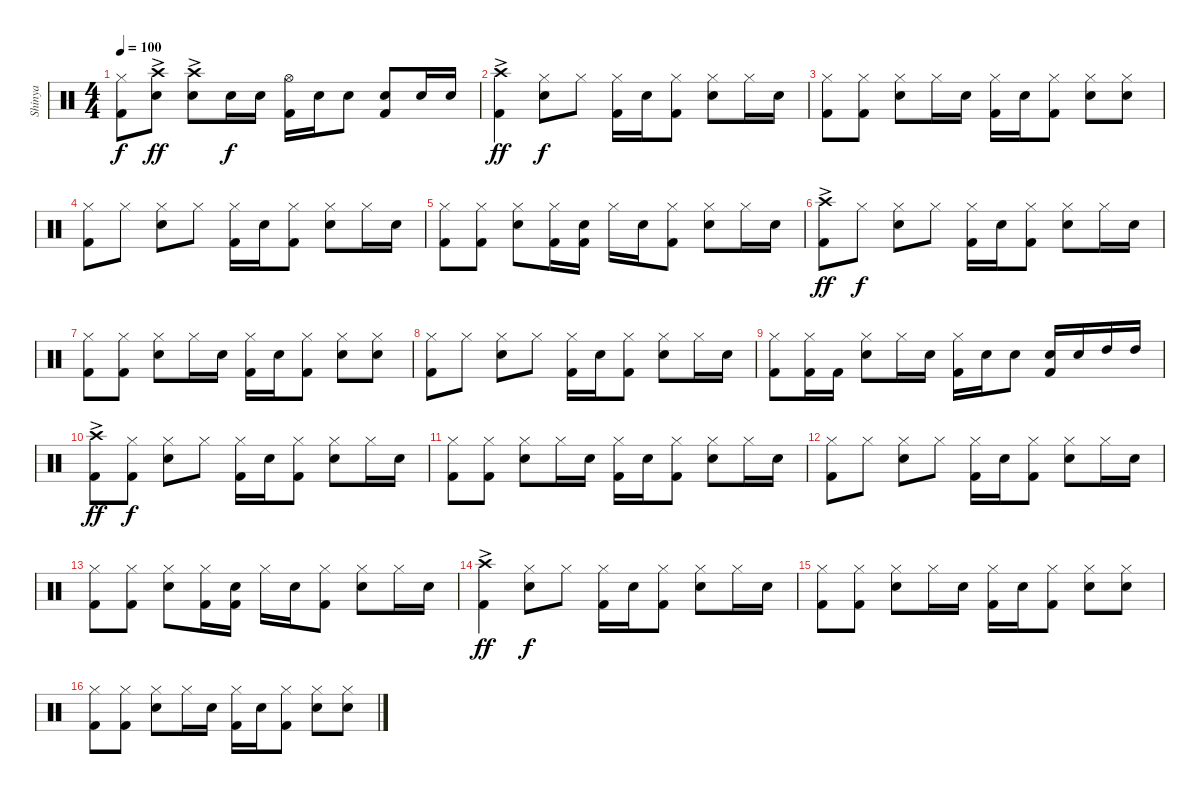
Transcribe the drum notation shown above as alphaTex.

\track ("Shinya" "Shinya") {instrument percussion}
\staff {score}
\articulation defaults
\ts (4 4)
\tempo 100
\clef neutral
\ks c
("Hi-Hat (closed)" "Kick (hit) 2").8{dy f} ("Crash high (hit)"{ac} "Snare (hit) 2").8{dy ff} ("Crash high (hit)"{ac} "Snare (hit) 2").8 "Snare (hit) 2".16{dy f} "Snare (hit) 2".16 ("Hi-Hat (open)" "Kick (hit) 2").16 "Snare (hit) 2".16 "Snare (hit) 2".8 ("Snare (hit) 2" "Kick (hit) 2").8 "Snare (hit) 2".16 "Snare (hit) 2".16 |
("Crash high (hit)"{ac} "Kick (hit) 2").4{dy ff} ("Hi-Hat (closed)" "Snare (hit) 2").8{dy f} "Hi-Hat (closed)".8 ("Hi-Hat (closed)" "Kick (hit) 2").16 "Snare (hit) 2".16 ("Hi-Hat (closed)" "Kick (hit) 2").8 ("Hi-Hat (closed)" "Snare (hit) 2").8 "Hi-Hat (closed)".16 "Snare (hit) 2".16 |
("Hi-Hat (closed)" "Kick (hit) 2").8 ("Hi-Hat (closed)" "Kick (hit) 2").8 ("Hi-Hat (closed)" "Snare (hit) 2").8 "Hi-Hat (closed)".16 "Snare (hit) 2".16 ("Hi-Hat (closed)" "Kick (hit) 2").16 "Snare (hit) 2".16 ("Hi-Hat (closed)" "Kick (hit) 2").8 ("Hi-Hat (closed)" "Snare (hit) 2").8 ("Hi-Hat (closed)" "Snare (hit) 2").8 |
("Hi-Hat (closed)" "Kick (hit) 2").8 "Hi-Hat (closed)".8 ("Hi-Hat (closed)" "Snare (hit) 2").8 "Hi-Hat (closed)".8 ("Hi-Hat (closed)" "Kick (hit) 2").16 "Snare (hit) 2".16 ("Hi-Hat (closed)" "Kick (hit) 2").8 ("Hi-Hat (closed)" "Snare (hit) 2").8 "Hi-Hat (closed)".16 "Snare (hit) 2".16 |
("Hi-Hat (closed)" "Kick (hit) 2").8 ("Hi-Hat (closed)" "Kick (hit) 2").8 ("Hi-Hat (closed)" "Snare (hit) 2").8 ("Hi-Hat (closed)" "Kick (hit) 2").16 ("Snare (hit) 2" "Kick (hit) 2").16 "Hi-Hat (closed)".16 "Snare (hit) 2".16 ("Hi-Hat (closed)" "Kick (hit) 2").8 ("Hi-Hat (closed)" "Snare (hit) 2").8 "Hi-Hat (closed)".16 "Snare (hit) 2".16 |
("Crash high (hit)"{ac} "Kick (hit) 2").8{dy ff} "Hi-Hat (closed)".8{dy f} ("Hi-Hat (closed)" "Snare (hit) 2").8 "Hi-Hat (closed)".8 ("Hi-Hat (closed)" "Kick (hit) 2").16 "Snare (hit) 2".16 ("Hi-Hat (closed)" "Kick (hit) 2").8 ("Hi-Hat (closed)" "Snare (hit) 2").8 "Hi-Hat (closed)".16 "Snare (hit) 2".16 |
("Hi-Hat (closed)" "Kick (hit) 2").8 ("Hi-Hat (closed)" "Kick (hit) 2").8 ("Hi-Hat (closed)" "Snare (hit) 2").8 "Hi-Hat (closed)".16 "Snare (hit) 2".16 ("Hi-Hat (closed)" "Kick (hit) 2").16 "Snare (hit) 2".16 ("Hi-Hat (closed)" "Kick (hit) 2").8 ("Hi-Hat (closed)" "Snare (hit) 2").8 ("Hi-Hat (closed)" "Snare (hit) 2").8 |
("Hi-Hat (closed)" "Kick (hit) 2").8 "Hi-Hat (closed)".8 ("Hi-Hat (closed)" "Snare (hit) 2").8 "Hi-Hat (closed)".8 ("Hi-Hat (closed)" "Kick (hit) 2").16 "Snare (hit) 2".16 ("Hi-Hat (closed)" "Kick (hit) 2").8 ("Hi-Hat (closed)" "Snare (hit) 2").8 "Hi-Hat (closed)".16 "Snare (hit) 2".16 |
("Hi-Hat (closed)" "Kick (hit) 2").8 ("Hi-Hat (closed)" "Kick (hit) 2").16 "Kick (hit) 2".16 ("Hi-Hat (closed)" "Snare (hit) 2").8 "Hi-Hat (closed)".16 "Snare (hit) 2".16 ("Hi-Hat (closed)" "Kick (hit) 2").16 "Snare (hit) 2".16 "Snare (hit) 2".8 ("Snare (hit) 2" "Kick (hit) 2").16 "Snare (hit) 2".16 "High Tom (hit)".16 "High Tom (hit)".16 |
("Crash high (hit)"{ac} "Kick (hit) 2").8{dy ff} ("Hi-Hat (closed)" "Kick (hit) 2").8{dy f} ("Hi-Hat (closed)" "Snare (hit) 2").8 "Hi-Hat (closed)".8 ("Hi-Hat (closed)" "Kick (hit) 2").16 "Snare (hit) 2".16 ("Hi-Hat (closed)" "Kick (hit) 2").8 ("Hi-Hat (closed)" "Snare (hit) 2").8 "Hi-Hat (closed)".16 "Snare (hit) 2".16 |
("Hi-Hat (closed)" "Kick (hit) 2").8 ("Hi-Hat (closed)" "Kick (hit) 2").8 ("Hi-Hat (closed)" "Snare (hit) 2").8 "Hi-Hat (closed)".16 "Snare (hit) 2".16 ("Hi-Hat (closed)" "Kick (hit) 2").16 "Snare (hit) 2".16 ("Hi-Hat (closed)" "Kick (hit) 2").8 ("Hi-Hat (closed)" "Snare (hit) 2").8 "Hi-Hat (closed)".16 "Snare (hit) 2".16 |
("Hi-Hat (closed)" "Kick (hit) 2").8 "Hi-Hat (closed)".8 ("Hi-Hat (closed)" "Snare (hit) 2").8 "Hi-Hat (closed)".8 ("Hi-Hat (closed)" "Kick (hit) 2").16 "Snare (hit) 2".16 ("Hi-Hat (closed)" "Kick (hit) 2").8 ("Hi-Hat (closed)" "Snare (hit) 2").8 "Hi-Hat (closed)".16 "Snare (hit) 2".16 |
("Hi-Hat (closed)" "Kick (hit) 2").8 ("Hi-Hat (closed)" "Kick (hit) 2").8 ("Hi-Hat (closed)" "Snare (hit) 2").8 ("Hi-Hat (closed)" "Kick (hit) 2").16 ("Snare (hit) 2" "Kick (hit) 2").16 "Hi-Hat (closed)".16 "Snare (hit) 2".16 ("Hi-Hat (closed)" "Kick (hit) 2").8 ("Hi-Hat (closed)" "Snare (hit) 2").8 "Hi-Hat (closed)".16 "Snare (hit) 2".16 |
("Crash high (hit)"{ac} "Kick (hit) 2").4{dy ff} ("Hi-Hat (closed)" "Snare (hit) 2").8{dy f} "Hi-Hat (closed)".8 ("Hi-Hat (closed)" "Kick (hit) 2").16 "Snare (hit) 2".16 ("Hi-Hat (closed)" "Kick (hit) 2").8 ("Hi-Hat (closed)" "Snare (hit) 2").8 "Hi-Hat (closed)".16 "Snare (hit) 2".16 |
("Hi-Hat (closed)" "Kick (hit) 2").8 ("Hi-Hat (closed)" "Kick (hit) 2").8 ("Hi-Hat (closed)" "Snare (hit) 2").8 "Hi-Hat (closed)".16 "Snare (hit) 2".16 ("Hi-Hat (closed)" "Kick (hit) 2").16 "Snare (hit) 2".16 ("Hi-Hat (closed)" "Kick (hit) 2").8 ("Hi-Hat (closed)" "Snare (hit) 2").8 ("Hi-Hat (closed)" "Snare (hit) 2").8 |
("Hi-Hat (closed)" "Kick (hit) 2").8 ("Hi-Hat (closed)" "Kick (hit) 2").8 ("Hi-Hat (closed)" "Snare (hit) 2").8 "Hi-Hat (closed)".16 "Snare (hit) 2".16 ("Hi-Hat (closed)" "Kick (hit) 2").16 "Snare (hit) 2".16 ("Hi-Hat (closed)" "Kick (hit) 2").8 ("Hi-Hat (closed)" "Snare (hit) 2").8 ("Hi-Hat (closed)" "Snare (hit) 2").8
